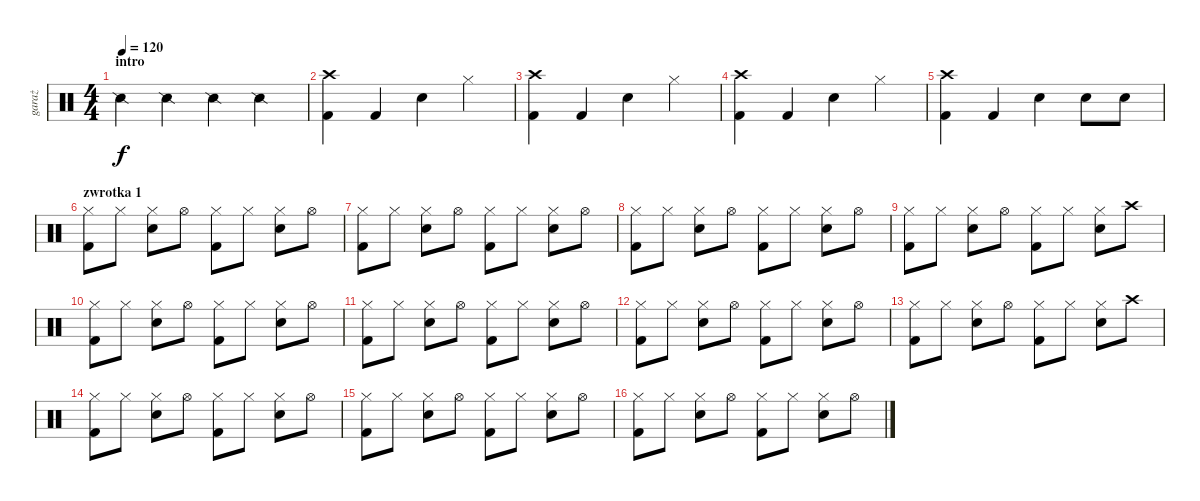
\track ("garaż" "garaż") {instrument percussion}
\staff {score}
\articulation defaults
\ts (4 4)
\section ("" "intro")
\tempo 120
\clef neutral
\ks c "Snare (side stick) 2".4{dy f} "Snare (side stick) 2".4 "Snare (side stick) 2".4 "Snare (side stick) 2".4
|
("Crash high (hit)" "Kick (hit) 2").4 "Kick (hit) 2".4 "Snare (hit) 2".4 "Hi-Hat (closed)".4 |
("Crash high (hit)" "Kick (hit) 2").4 "Kick (hit) 2".4 "Snare (hit) 2".4 "Hi-Hat (closed)".4 |
("Crash high (hit)" "Kick (hit) 2").4 "Kick (hit) 2".4 "Snare (hit) 2".4 "Hi-Hat (closed)".4 |
("Crash high (hit)" "Kick (hit) 2").4 "Kick (hit) 2".4 "Snare (hit) 2".4 "Snare (hit) 2".8 "Snare (hit) 2".8 |
\section ("" "zwrotka 1")
("Hi-Hat (closed)" "Kick (hit) 2").8 "Hi-Hat (closed)".8 ("Hi-Hat (closed)" "Snare (hit) 2").8 "Hi-Hat (open)".8 ("Hi-Hat (closed)" "Kick (hit) 2").8 "Hi-Hat (closed)".8 ("Hi-Hat (closed)" "Snare (hit) 2").8 "Hi-Hat (open)".8 |
("Hi-Hat (closed)" "Kick (hit) 2").8 "Hi-Hat (closed)".8 ("Hi-Hat (closed)" "Snare (hit) 2").8 "Hi-Hat (open)".8 ("Hi-Hat (closed)" "Kick (hit) 2").8 "Hi-Hat (closed)".8 ("Hi-Hat (closed)" "Snare (hit) 2").8 "Hi-Hat (open)".8 |
("Hi-Hat (closed)" "Kick (hit) 2").8 "Hi-Hat (closed)".8 ("Hi-Hat (closed)" "Snare (hit) 2").8 "Hi-Hat (open)".8 ("Hi-Hat (closed)" "Kick (hit) 2").8 "Hi-Hat (closed)".8 ("Hi-Hat (closed)" "Snare (hit) 2").8 "Hi-Hat (open)".8 |
("Hi-Hat (closed)" "Kick (hit) 2").8 "Hi-Hat (closed)".8 ("Hi-Hat (closed)" "Snare (hit) 2").8 "Hi-Hat (open)".8 ("Hi-Hat (closed)" "Kick (hit) 2").8 "Hi-Hat (closed)".8 ("Hi-Hat (closed)" "Snare (hit) 2").8 "Crash high (hit)".8 |
("Hi-Hat (closed)" "Kick (hit) 2").8 "Hi-Hat (closed)".8 ("Hi-Hat (closed)" "Snare (hit) 2").8 "Hi-Hat (open)".8 ("Hi-Hat (closed)" "Kick (hit) 2").8 "Hi-Hat (closed)".8 ("Hi-Hat (closed)" "Snare (hit) 2").8 "Hi-Hat (open)".8 |
("Hi-Hat (closed)" "Kick (hit) 2").8 "Hi-Hat (closed)".8 ("Hi-Hat (closed)" "Snare (hit) 2").8 "Hi-Hat (open)".8 ("Hi-Hat (closed)" "Kick (hit) 2").8 "Hi-Hat (closed)".8 ("Hi-Hat (closed)" "Snare (hit) 2").8 "Hi-Hat (open)".8 |
("Hi-Hat (closed)" "Kick (hit) 2").8 "Hi-Hat (closed)".8 ("Hi-Hat (closed)" "Snare (hit) 2").8 "Hi-Hat (open)".8 ("Hi-Hat (closed)" "Kick (hit) 2").8 "Hi-Hat (closed)".8 ("Hi-Hat (closed)" "Snare (hit) 2").8 "Hi-Hat (open)".8 |
("Hi-Hat (closed)" "Kick (hit) 2").8 "Hi-Hat (closed)".8 ("Hi-Hat (closed)" "Snare (hit) 2").8 "Hi-Hat (open)".8 ("Hi-Hat (closed)" "Kick (hit) 2").8 "Hi-Hat (closed)".8 ("Hi-Hat (closed)" "Snare (hit) 2").8 "Crash high (hit)".8 |
("Hi-Hat (closed)" "Kick (hit) 2").8 "Hi-Hat (closed)".8 ("Hi-Hat (closed)" "Snare (hit) 2").8 "Hi-Hat (open)".8 ("Hi-Hat (closed)" "Kick (hit) 2").8 "Hi-Hat (closed)".8 ("Hi-Hat (closed)" "Snare (hit) 2").8 "Hi-Hat (open)".8 |
("Hi-Hat (closed)" "Kick (hit) 2").8 "Hi-Hat (closed)".8 ("Hi-Hat (closed)" "Snare (hit) 2").8 "Hi-Hat (open)".8 ("Hi-Hat (closed)" "Kick (hit) 2").8 "Hi-Hat (closed)".8 ("Hi-Hat (closed)" "Snare (hit) 2").8 "Hi-Hat (open)".8 |
("Hi-Hat (closed)" "Kick (hit) 2").8 "Hi-Hat (closed)".8 ("Hi-Hat (closed)" "Snare (hit) 2").8 "Hi-Hat (open)".8 ("Hi-Hat (closed)" "Kick (hit) 2").8 "Hi-Hat (closed)".8 ("Hi-Hat (closed)" "Snare (hit) 2").8 "Hi-Hat (open)".8
